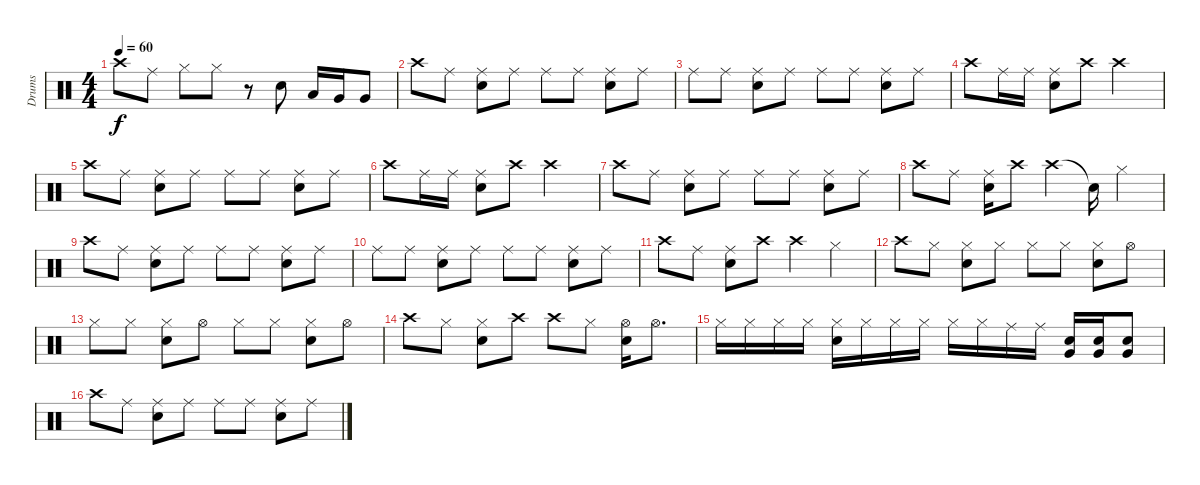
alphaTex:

\track ("Drums" "Drums") {instrument percussion}
\staff {score}
\articulation defaults
\ts (4 4)
\tempo 60
\clef neutral
\ks c "Crash high (hit)".8{dy f} "Ride (middle)".8 "Hi-Hat (closed)".8 "Hi-Hat (closed)".8
r.8 "Snare (hit) 2".8 "Low Tom (hit)".16 "Very Low Tom (hit)".16 "Very Low Tom (hit)".8 |
"Crash high (hit)".8 "Ride (middle)".8 ("Snare (hit) 2" "Ride (middle)").8 "Ride (middle)".8 "Ride (middle)".8 "Ride (middle)".8 ("Snare (hit) 2" "Ride (middle)").8 "Ride (middle)".8 |
"Ride (middle)".8 "Ride (middle)".8 ("Snare (hit) 2" "Ride (middle)").8 "Ride (middle)".8 "Ride (middle)".8 "Ride (middle)".8 ("Snare (hit) 2" "Ride (middle)").8 "Ride (middle)".8 |
"Crash high (hit)".8 "Ride (middle)".16 "Ride (middle)".16 ("Snare (hit) 2" "Ride (middle)").8 "Crash high (hit)".8 "Crash high (hit)".2 |
"Crash high (hit)".8 "Ride (middle)".8 ("Snare (hit) 2" "Ride (middle)").8 "Ride (middle)".8 "Ride (middle)".8 "Ride (middle)".8 ("Snare (hit) 2" "Ride (middle)").8 "Ride (middle)".8 |
"Crash high (hit)".8 "Ride (middle)".16 "Ride (middle)".16 ("Snare (hit) 2" "Ride (middle)").8 "Crash high (hit)".8 "Crash high (hit)".2 |
"Crash high (hit)".8 "Ride (middle)".8 ("Snare (hit) 2" "Ride (middle)").8 "Ride (middle)".8 "Ride (middle)".8 "Ride (middle)".8 ("Snare (hit) 2" "Ride (middle)").8 "Ride (middle)".8 |
"Crash high (hit)".8 "Ride (middle)".8 ("Snare (hit) 2" "Ride (middle)").16 "Crash high (hit)".8 "Crash high (hit)".4 "Snare (hit)"{t}.16 "Hi-Hat (closed)".4 |
"Crash high (hit)".8 "Ride (middle)".8 ("Snare (hit) 2" "Ride (middle)").8 "Ride (middle)".8 "Ride (middle)".8 "Ride (middle)".8 ("Snare (hit) 2" "Ride (middle)").8 "Ride (middle)".8 |
"Ride (middle)".8 "Ride (middle)".8 ("Snare (hit) 2" "Ride (middle)").8 "Ride (middle)".8 "Ride (middle)".8 "Ride (middle)".8 ("Snare (hit) 2" "Ride (middle)").8 "Ride (middle)".8 |
"Crash high (hit)".8 "Ride (middle)".8 ("Snare (hit) 2" "Ride (middle)").8 "Crash high (hit)".8 "Crash high (hit)".4 "Hi-Hat (closed)".4 |
"Crash high (hit)".8 "Hi-Hat (closed)".8 ("Snare (hit) 2" "Hi-Hat (closed)").8 "Hi-Hat (closed)".8 "Hi-Hat (closed)".8 "Hi-Hat (closed)".8 ("Snare (hit) 2" "Hi-Hat (closed)").8 "Hi-Hat (open)".8 |
"Hi-Hat (closed)".8 "Hi-Hat (closed)".8 ("Snare (hit) 2" "Hi-Hat (closed)").8 "Hi-Hat (open)".8 "Hi-Hat (closed)".8 "Hi-Hat (closed)".8 ("Snare (hit) 2" "Hi-Hat (closed)").8 "Hi-Hat (open)".8 |
"Crash high (hit)".8 "Hi-Hat (closed)".8 ("Snare (hit) 2" "Hi-Hat (closed)").8 "Crash high (hit)".8 "Crash high (hit)".8 "Hi-Hat (closed)".8 ("Snare (hit) 2" "Hi-Hat (open)").16 "Hi-Hat (open)".8{d} |
"Hi-Hat (closed)".16 "Hi-Hat (closed)".16 "Hi-Hat (closed)".16 "Hi-Hat (closed)".16 ("Snare (hit) 2" "Hi-Hat (closed)").16 "Hi-Hat (closed)".16 "Hi-Hat (closed)".16 "Hi-Hat (closed)".16 "Hi-Hat (closed)".16 "Hi-Hat (closed)".16 "Ride (middle)".16 "Ride (middle)".16 ("Very Low Tom (hit)" "Snare (hit) 2").16 ("Very Low Tom (hit)" "Snare (hit) 2").16 ("Very Low Tom (hit)" "Snare (hit) 2").8 |
"Crash high (hit)".8 "Ride (middle)".8 ("Snare (hit) 2" "Ride (middle)").8 "Ride (middle)".8 "Ride (middle)".8 "Ride (middle)".8 ("Snare (hit) 2" "Ride (middle)").8 "Ride (middle)".8
